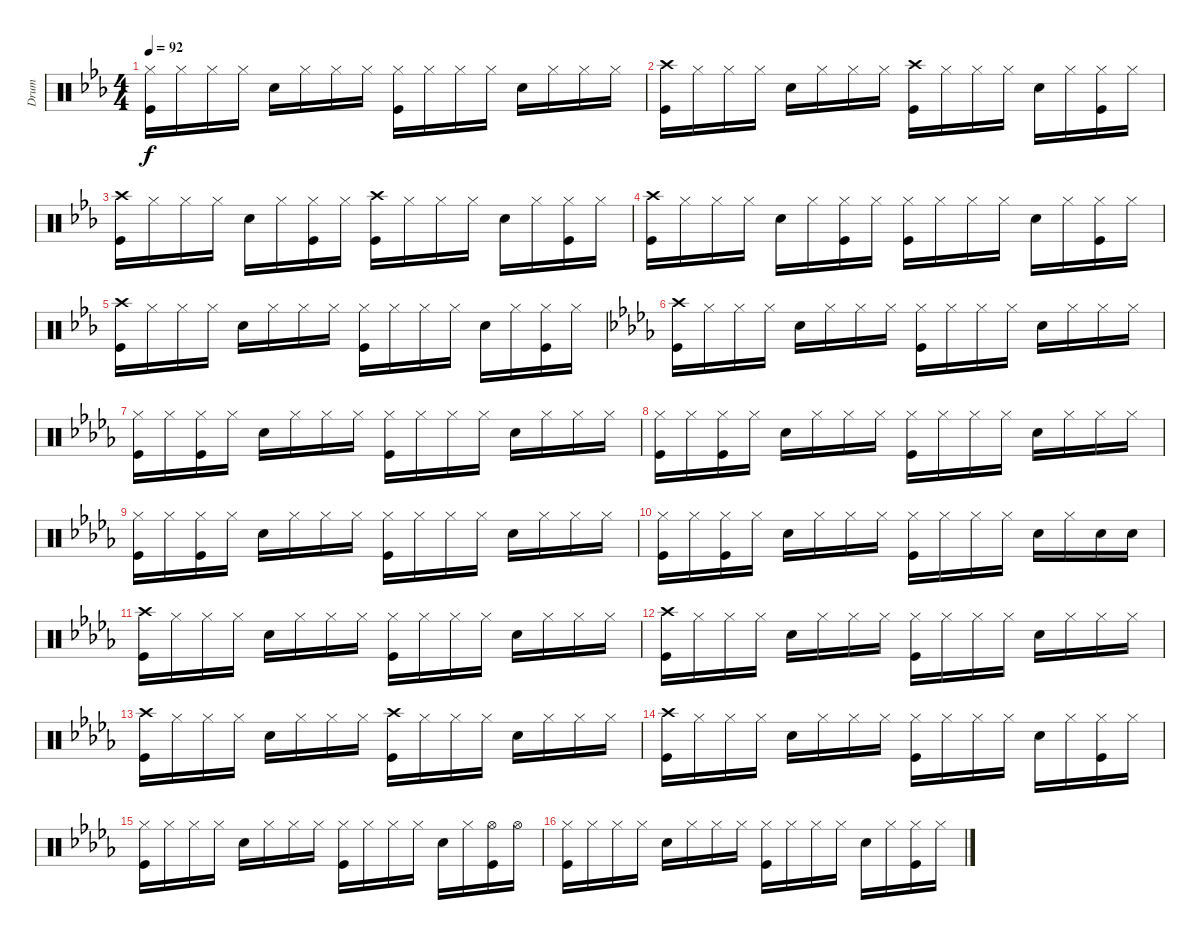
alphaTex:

\track ("Drum" "Drum") {instrument percussion}
\staff {score}
\articulation defaults
\ts (4 4)
\tempo 92
\clef neutral
\ks eb
("Hi-Hat (closed)" "Kick (hit)").16{dy f} "Hi-Hat (closed)".16 "Hi-Hat (closed)".16 "Hi-Hat (closed)".16 "Snare (hit) 2".16 "Hi-Hat (closed)".16 "Hi-Hat (closed)".16 "Hi-Hat (closed)".16 ("Hi-Hat (closed)" "Kick (hit)").16 "Hi-Hat (closed)".16 "Hi-Hat (closed)".16 "Hi-Hat (closed)".16 "Snare (hit) 2".16 "Hi-Hat (closed)".16 "Hi-Hat (closed)".16 "Hi-Hat (closed)".16 |
("Crash high (hit)" "Kick (hit)").16 "Hi-Hat (closed)".16 "Hi-Hat (closed)".16 "Hi-Hat (closed)".16 "Snare (hit) 2".16 "Hi-Hat (closed)".16 "Hi-Hat (closed)".16 "Hi-Hat (closed)".16 ("Crash high (hit)" "Kick (hit)").16 "Hi-Hat (closed)".16 "Hi-Hat (closed)".16 "Hi-Hat (closed)".16 "Snare (hit) 2".16 "Hi-Hat (closed)".16 ("Hi-Hat (closed)" "Kick (hit)").16 "Hi-Hat (closed)".16 |
("Crash high (hit)" "Kick (hit)").16 "Hi-Hat (closed)".16 "Hi-Hat (closed)".16 "Hi-Hat (closed)".16 "Snare (hit) 2".16 "Hi-Hat (closed)".16 ("Hi-Hat (closed)" "Kick (hit)").16 "Hi-Hat (closed)".16 ("Crash high (hit)" "Kick (hit)").16 "Hi-Hat (closed)".16 "Hi-Hat (closed)".16 "Hi-Hat (closed)".16 "Snare (hit) 2".16 "Hi-Hat (closed)".16 ("Hi-Hat (closed)" "Kick (hit)").16 "Hi-Hat (closed)".16 |
("Crash high (hit)" "Kick (hit)").16 "Hi-Hat (closed)".16 "Hi-Hat (closed)".16 "Hi-Hat (closed)".16 "Snare (hit) 2".16 "Hi-Hat (closed)".16 ("Hi-Hat (closed)" "Kick (hit)").16 "Hi-Hat (closed)".16 ("Hi-Hat (closed)" "Kick (hit)").16 "Hi-Hat (closed)".16 "Hi-Hat (closed)".16 "Hi-Hat (closed)".16 "Snare (hit) 2".16 "Hi-Hat (closed)".16 ("Hi-Hat (closed)" "Kick (hit)").16 "Hi-Hat (closed)".16 |
("Crash high (hit)" "Kick (hit)").16 "Hi-Hat (closed)".16 "Hi-Hat (closed)".16 "Hi-Hat (closed)".16 "Snare (hit) 2".16 "Hi-Hat (closed)".16 "Hi-Hat (closed)".16 "Hi-Hat (closed)".16 ("Hi-Hat (closed)" "Kick (hit)").16 "Hi-Hat (closed)".16 "Hi-Hat (closed)".16 "Hi-Hat (closed)".16 "Snare (hit) 2".16 "Hi-Hat (closed)".16 ("Hi-Hat (closed)" "Kick (hit)").16 "Hi-Hat (closed)".16 |
\ks db
("Crash high (hit)" "Kick (hit)").16 "Hi-Hat (closed)".16 "Hi-Hat (closed)".16 "Hi-Hat (closed)".16 "Snare (hit) 2".16 "Hi-Hat (closed)".16 "Hi-Hat (closed)".16 "Hi-Hat (closed)".16 ("Hi-Hat (closed)" "Kick (hit)").16 "Hi-Hat (closed)".16 "Hi-Hat (closed)".16 "Hi-Hat (closed)".16 "Snare (hit) 2".16 "Hi-Hat (closed)".16 "Hi-Hat (closed)".16 "Hi-Hat (closed)".16 |
("Hi-Hat (closed)" "Kick (hit)").16 "Hi-Hat (closed)".16 ("Hi-Hat (closed)" "Kick (hit)").16 "Hi-Hat (closed)".16 "Snare (hit) 2".16 "Hi-Hat (closed)".16 "Hi-Hat (closed)".16 "Hi-Hat (closed)".16 ("Hi-Hat (closed)" "Kick (hit)").16 "Hi-Hat (closed)".16 "Hi-Hat (closed)".16 "Hi-Hat (closed)".16 "Snare (hit) 2".16 "Hi-Hat (closed)".16 "Hi-Hat (closed)".16 "Hi-Hat (closed)".16 |
("Hi-Hat (closed)" "Kick (hit)").16 "Hi-Hat (closed)".16 ("Hi-Hat (closed)" "Kick (hit)").16 "Hi-Hat (closed)".16 "Snare (hit) 2".16 "Hi-Hat (closed)".16 "Hi-Hat (closed)".16 "Hi-Hat (closed)".16 ("Hi-Hat (closed)" "Kick (hit)").16 "Hi-Hat (closed)".16 "Hi-Hat (closed)".16 "Hi-Hat (closed)".16 "Snare (hit) 2".16 "Hi-Hat (closed)".16 "Hi-Hat (closed)".16 "Hi-Hat (closed)".16 |
("Hi-Hat (closed)" "Kick (hit)").16 "Hi-Hat (closed)".16 ("Hi-Hat (closed)" "Kick (hit)").16 "Hi-Hat (closed)".16 "Snare (hit) 2".16 "Hi-Hat (closed)".16 "Hi-Hat (closed)".16 "Hi-Hat (closed)".16 ("Hi-Hat (closed)" "Kick (hit)").16 "Hi-Hat (closed)".16 "Hi-Hat (closed)".16 "Hi-Hat (closed)".16 "Snare (hit) 2".16 "Hi-Hat (closed)".16 "Hi-Hat (closed)".16 "Hi-Hat (closed)".16 |
("Hi-Hat (closed)" "Kick (hit)").16 "Hi-Hat (closed)".16 ("Hi-Hat (closed)" "Kick (hit)").16 "Hi-Hat (closed)".16 "Snare (hit) 2".16 "Hi-Hat (closed)".16 "Hi-Hat (closed)".16 "Hi-Hat (closed)".16 ("Hi-Hat (closed)" "Kick (hit)").16 "Hi-Hat (closed)".16 "Hi-Hat (closed)".16 "Hi-Hat (closed)".16 "Snare (hit) 2".16 "Hi-Hat (closed)".16 "Snare (hit) 2".16 "Snare (hit) 2".16 |
("Crash high (hit)" "Kick (hit)").16 "Hi-Hat (closed)".16 "Hi-Hat (closed)".16 "Hi-Hat (closed)".16 "Snare (hit) 2".16 "Hi-Hat (closed)".16 "Hi-Hat (closed)".16 "Hi-Hat (closed)".16 ("Hi-Hat (closed)" "Kick (hit)").16 "Hi-Hat (closed)".16 "Hi-Hat (closed)".16 "Hi-Hat (closed)".16 "Snare (hit) 2".16 "Hi-Hat (closed)".16 "Hi-Hat (closed)".16 "Hi-Hat (closed)".16 |
("Crash high (hit)" "Kick (hit)").16 "Hi-Hat (closed)".16 "Hi-Hat (closed)".16 "Hi-Hat (closed)".16 "Snare (hit) 2".16 "Hi-Hat (closed)".16 "Hi-Hat (closed)".16 "Hi-Hat (closed)".16 ("Hi-Hat (closed)" "Kick (hit)").16 "Hi-Hat (closed)".16 "Hi-Hat (closed)".16 "Hi-Hat (closed)".16 "Snare (hit) 2".16 "Hi-Hat (closed)".16 "Hi-Hat (closed)".16 "Hi-Hat (closed)".16 |
("Crash high (hit)" "Kick (hit)").16 "Hi-Hat (closed)".16 "Hi-Hat (closed)".16 "Hi-Hat (closed)".16 "Snare (hit) 2".16 "Hi-Hat (closed)".16 "Hi-Hat (closed)".16 "Hi-Hat (closed)".16 ("Crash high (hit)" "Kick (hit)").16 "Hi-Hat (closed)".16 "Hi-Hat (closed)".16 "Hi-Hat (closed)".16 "Snare (hit) 2".16 "Hi-Hat (closed)".16 "Hi-Hat (closed)".16 "Hi-Hat (closed)".16 |
("Crash high (hit)" "Kick (hit)").16 "Hi-Hat (closed)".16 "Hi-Hat (closed)".16 "Hi-Hat (closed)".16 "Snare (hit) 2".16 "Hi-Hat (closed)".16 "Hi-Hat (closed)".16 "Hi-Hat (closed)".16 ("Hi-Hat (closed)" "Kick (hit)").16 "Hi-Hat (closed)".16 "Hi-Hat (closed)".16 "Hi-Hat (closed)".16 "Snare (hit) 2".16 "Hi-Hat (closed)".16 ("Hi-Hat (closed)" "Kick (hit)").16 "Hi-Hat (closed)".16 |
("Hi-Hat (closed)" "Kick (hit)").16 "Hi-Hat (closed)".16 "Hi-Hat (closed)".16 "Hi-Hat (closed)".16 "Snare (hit) 2".16 "Hi-Hat (closed)".16 "Hi-Hat (closed)".16 "Hi-Hat (closed)".16 ("Hi-Hat (closed)" "Kick (hit)").16 "Hi-Hat (closed)".16 "Hi-Hat (closed)".16 "Hi-Hat (closed)".16 "Snare (hit) 2".16 "Hi-Hat (closed)".16 ("Hi-Hat (open)" "Kick (hit)").16 "Hi-Hat (open)".16 |
("Hi-Hat (closed)" "Kick (hit)").16 "Hi-Hat (closed)".16 "Hi-Hat (closed)".16 "Hi-Hat (closed)".16 "Snare (hit) 2".16 "Hi-Hat (closed)".16 "Hi-Hat (closed)".16 "Hi-Hat (closed)".16 ("Hi-Hat (closed)" "Kick (hit)").16 "Hi-Hat (closed)".16 "Hi-Hat (closed)".16 "Hi-Hat (closed)".16 "Snare (hit) 2".16 "Hi-Hat (closed)".16 ("Hi-Hat (closed)" "Kick (hit)").16 "Hi-Hat (closed)".16
